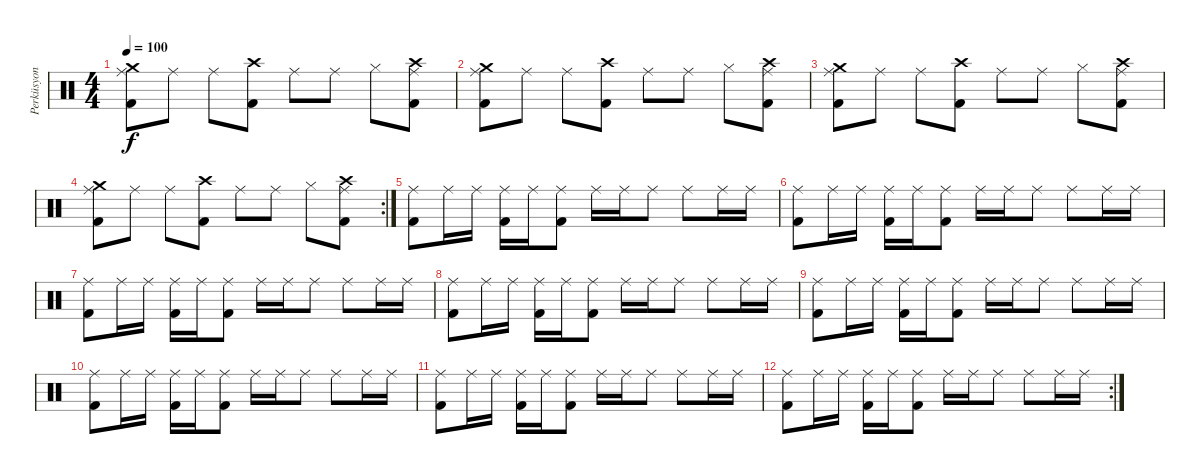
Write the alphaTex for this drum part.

\track ("Perküsyon" "Perküsyon") {instrument percussion}
\staff {score}
\articulation defaults
\ts (4 4)
\tempo 100
\clef neutral
\ks c
("Ride (middle)" "Crash medium (hit)" "Kick (hit) 2").8{dy f} "Ride (middle)".8 "Ride (middle)".8 ("Kick (hit) 2" "Crash high (hit)").8 "Ride (middle)".8 "Ride (middle)".8 "Hi-Hat (closed)".8 ("Kick (hit) 2" "Crash high (hit)" "Ride (middle)").8 |
("Ride (middle)" "Crash medium (hit)" "Kick (hit) 2").8 "Ride (middle)".8 "Ride (middle)".8 ("Kick (hit) 2" "Crash high (hit)").8 "Ride (middle)".8 "Ride (middle)".8 "Hi-Hat (closed)".8 ("Kick (hit) 2" "Crash high (hit)" "Ride (middle)").8 |
("Ride (middle)" "Crash medium (hit)" "Kick (hit) 2").8 "Ride (middle)".8 "Ride (middle)".8 ("Kick (hit) 2" "Crash high (hit)").8 "Ride (middle)".8 "Ride (middle)".8 "Hi-Hat (closed)".8 ("Kick (hit) 2" "Crash high (hit)" "Ride (middle)").8 |
\rc 2
("Ride (middle)" "Crash medium (hit)" "Kick (hit) 2").8 "Ride (middle)".8 "Ride (middle)".8 ("Kick (hit) 2" "Crash high (hit)").8 "Ride (middle)".8 "Ride (middle)".8 "Hi-Hat (closed)".8 ("Kick (hit) 2" "Crash high (hit)" "Ride (middle)").8 |
("Ride (middle)" "Kick (hit) 2").8 "Ride (middle)".16 "Ride (middle)".16 ("Ride (middle)" "Kick (hit) 2").16 "Ride (middle)".16 ("Kick (hit) 2" "Ride (middle)").8 "Ride (middle)".16 "Ride (middle)".16 "Ride (middle)".8 "Ride (middle)".8 "Ride (middle)".16 "Ride (middle)".16 |
("Ride (middle)" "Kick (hit) 2").8 "Ride (middle)".16 "Ride (middle)".16 ("Ride (middle)" "Kick (hit) 2").16 "Ride (middle)".16 ("Kick (hit) 2" "Ride (middle)").8 "Ride (middle)".16 "Ride (middle)".16 "Ride (middle)".8 "Ride (middle)".8 "Ride (middle)".16 "Ride (middle)".16 |
("Ride (middle)" "Kick (hit) 2").8 "Ride (middle)".16 "Ride (middle)".16 ("Ride (middle)" "Kick (hit) 2").16 "Ride (middle)".16 ("Kick (hit) 2" "Ride (middle)").8 "Ride (middle)".16 "Ride (middle)".16 "Ride (middle)".8 "Ride (middle)".8 "Ride (middle)".16 "Ride (middle)".16 |
("Ride (middle)" "Kick (hit) 2").8 "Ride (middle)".16 "Ride (middle)".16 ("Ride (middle)" "Kick (hit) 2").16 "Ride (middle)".16 ("Kick (hit) 2" "Ride (middle)").8 "Ride (middle)".16 "Ride (middle)".16 "Ride (middle)".8 "Ride (middle)".8 "Ride (middle)".16 "Ride (middle)".16 |
("Ride (middle)" "Kick (hit) 2").8 "Ride (middle)".16 "Ride (middle)".16 ("Ride (middle)" "Kick (hit) 2").16 "Ride (middle)".16 ("Kick (hit) 2" "Ride (middle)").8 "Ride (middle)".16 "Ride (middle)".16 "Ride (middle)".8 "Ride (middle)".8 "Ride (middle)".16 "Ride (middle)".16 |
("Ride (middle)" "Kick (hit) 2").8 "Ride (middle)".16 "Ride (middle)".16 ("Ride (middle)" "Kick (hit) 2").16 "Ride (middle)".16 ("Kick (hit) 2" "Ride (middle)").8 "Ride (middle)".16 "Ride (middle)".16 "Ride (middle)".8 "Ride (middle)".8 "Ride (middle)".16 "Ride (middle)".16 |
("Ride (middle)" "Kick (hit) 2").8 "Ride (middle)".16 "Ride (middle)".16 ("Ride (middle)" "Kick (hit) 2").16 "Ride (middle)".16 ("Kick (hit) 2" "Ride (middle)").8 "Ride (middle)".16 "Ride (middle)".16 "Ride (middle)".8 "Ride (middle)".8 "Ride (middle)".16 "Ride (middle)".16 |
\rc 2
("Ride (middle)" "Kick (hit) 2").8 "Ride (middle)".16 "Ride (middle)".16 ("Ride (middle)" "Kick (hit) 2").16 "Ride (middle)".16 ("Kick (hit) 2" "Ride (middle)").8 "Ride (middle)".16 "Ride (middle)".16 "Ride (middle)".8 "Ride (middle)".8 "Ride (middle)".16 "Ride (middle)".16
